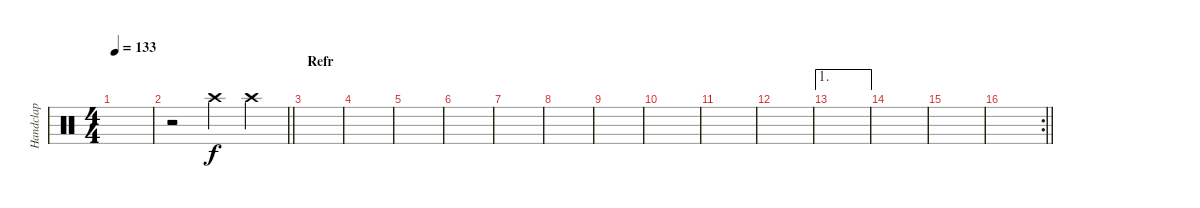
\track ("Handclap" "Handclap") {instrument percussion}
\staff {score}
\articulation defaults
\ts (4 4)
\tempo 133
\clef neutral
\ks c
|
\barLineRight lightlight
r.2 "Crash high (hit)".4 "Crash high (hit)".4 |
\section ("" "Refr")
|
|
|
|
|
|
|
|
|
|
\ae 1
|
|
|
\rc 2
\barLineRight lightlight
